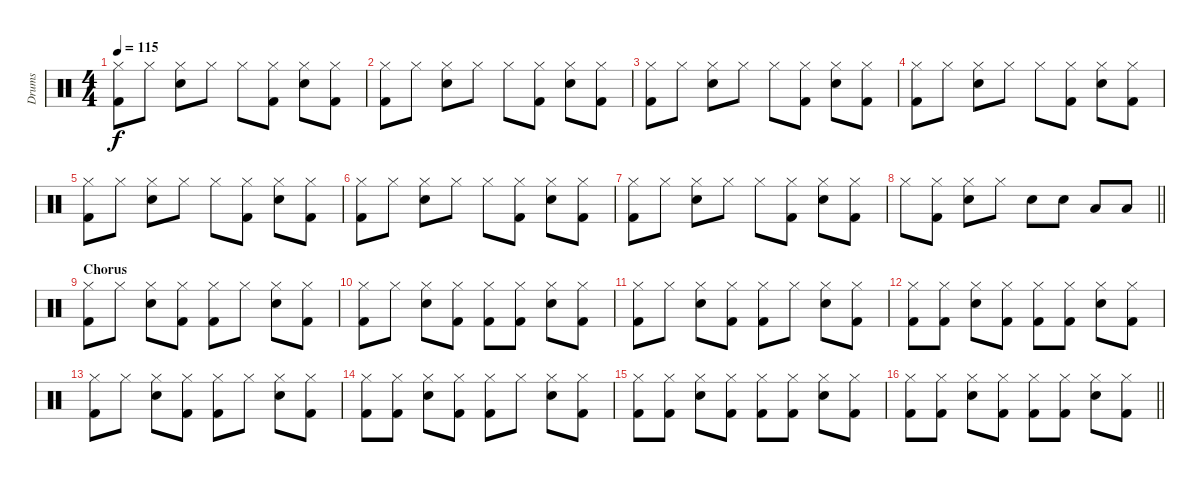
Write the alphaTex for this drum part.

\track ("Drums" "Drums") {instrument percussion}
\staff {score}
\articulation defaults
\ts (4 4)
\tempo 115
\clef neutral
\ks c
("Hi-Hat (closed)" "Kick (hit) 2").8{dy f} "Hi-Hat (closed)".8 ("Hi-Hat (closed)" "Snare (hit) 2").8 "Hi-Hat (closed)".8 "Hi-Hat (closed)".8 ("Hi-Hat (closed)" "Kick (hit) 2").8 ("Hi-Hat (closed)" "Snare (hit) 2").8 ("Hi-Hat (closed)" "Kick (hit) 2").8 |
("Hi-Hat (closed)" "Kick (hit) 2").8 "Hi-Hat (closed)".8 ("Hi-Hat (closed)" "Snare (hit) 2").8 "Hi-Hat (closed)".8 "Hi-Hat (closed)".8 ("Hi-Hat (closed)" "Kick (hit) 2").8 ("Hi-Hat (closed)" "Snare (hit) 2").8 ("Hi-Hat (closed)" "Kick (hit) 2").8 |
("Hi-Hat (closed)" "Kick (hit) 2").8 "Hi-Hat (closed)".8 ("Hi-Hat (closed)" "Snare (hit) 2").8 "Hi-Hat (closed)".8 "Hi-Hat (closed)".8 ("Hi-Hat (closed)" "Kick (hit) 2").8 ("Hi-Hat (closed)" "Snare (hit) 2").8 ("Hi-Hat (closed)" "Kick (hit) 2").8 |
("Hi-Hat (closed)" "Kick (hit) 2").8 "Hi-Hat (closed)".8 ("Hi-Hat (closed)" "Snare (hit) 2").8 "Hi-Hat (closed)".8 "Hi-Hat (closed)".8 ("Hi-Hat (closed)" "Kick (hit) 2").8 ("Hi-Hat (closed)" "Snare (hit) 2").8 ("Hi-Hat (closed)" "Kick (hit) 2").8 |
("Hi-Hat (closed)" "Kick (hit) 2").8 "Hi-Hat (closed)".8 ("Hi-Hat (closed)" "Snare (hit) 2").8 "Hi-Hat (closed)".8 "Hi-Hat (closed)".8 ("Hi-Hat (closed)" "Kick (hit) 2").8 ("Hi-Hat (closed)" "Snare (hit) 2").8 ("Hi-Hat (closed)" "Kick (hit) 2").8 |
("Hi-Hat (closed)" "Kick (hit) 2").8 "Hi-Hat (closed)".8 ("Hi-Hat (closed)" "Snare (hit) 2").8 "Hi-Hat (closed)".8 "Hi-Hat (closed)".8 ("Hi-Hat (closed)" "Kick (hit) 2").8 ("Hi-Hat (closed)" "Snare (hit) 2").8 ("Hi-Hat (closed)" "Kick (hit) 2").8 |
("Hi-Hat (closed)" "Kick (hit) 2").8 "Hi-Hat (closed)".8 ("Hi-Hat (closed)" "Snare (hit) 2").8 "Hi-Hat (closed)".8 "Hi-Hat (closed)".8 ("Hi-Hat (closed)" "Kick (hit) 2").8 ("Hi-Hat (closed)" "Snare (hit) 2").8 ("Hi-Hat (closed)" "Kick (hit) 2").8 |
\barLineRight lightlight "Hi-Hat (closed)".8
("Hi-Hat (closed)" "Kick (hit) 2").8 ("Hi-Hat (closed)" "Snare (hit) 2").8 "Hi-Hat (closed)".8 "Snare (hit) 2".8 "Snare (hit) 2".8 "Low Tom (hit)".8 "Low Tom (hit)".8 |
\section ("" "Chorus")
("Hi-Hat (closed)" "Kick (hit) 2").8 "Hi-Hat (closed)".8 ("Hi-Hat (closed)" "Snare (hit) 2").8 ("Hi-Hat (closed)" "Kick (hit) 2").8 ("Hi-Hat (closed)" "Kick (hit) 2").8 "Hi-Hat (closed)".8 ("Hi-Hat (closed)" "Snare (hit) 2").8 ("Hi-Hat (closed)" "Kick (hit) 2").8 |
("Hi-Hat (closed)" "Kick (hit) 2").8 "Hi-Hat (closed)".8 ("Hi-Hat (closed)" "Snare (hit) 2").8 ("Hi-Hat (closed)" "Kick (hit) 2").8 ("Hi-Hat (closed)" "Kick (hit) 2").8 ("Hi-Hat (closed)" "Kick (hit) 2").8 ("Hi-Hat (closed)" "Snare (hit) 2").8 ("Hi-Hat (closed)" "Kick (hit) 2").8 |
("Hi-Hat (closed)" "Kick (hit) 2").8 "Hi-Hat (closed)".8 ("Hi-Hat (closed)" "Snare (hit) 2").8 ("Hi-Hat (closed)" "Kick (hit) 2").8 ("Hi-Hat (closed)" "Kick (hit) 2").8 "Hi-Hat (closed)".8 ("Hi-Hat (closed)" "Snare (hit) 2").8 ("Hi-Hat (closed)" "Kick (hit) 2").8 |
("Hi-Hat (closed)" "Kick (hit) 2").8 ("Hi-Hat (closed)" "Kick (hit) 2").8 ("Hi-Hat (closed)" "Snare (hit) 2").8 ("Hi-Hat (closed)" "Kick (hit) 2").8 ("Hi-Hat (closed)" "Kick (hit) 2").8 ("Hi-Hat (closed)" "Kick (hit) 2").8 ("Hi-Hat (closed)" "Snare (hit) 2").8 ("Hi-Hat (closed)" "Kick (hit) 2").8 |
("Hi-Hat (closed)" "Kick (hit) 2").8 "Hi-Hat (closed)".8 ("Hi-Hat (closed)" "Snare (hit) 2").8 ("Hi-Hat (closed)" "Kick (hit) 2").8 ("Hi-Hat (closed)" "Kick (hit) 2").8 "Hi-Hat (closed)".8 ("Hi-Hat (closed)" "Snare (hit) 2").8 ("Hi-Hat (closed)" "Kick (hit) 2").8 |
("Hi-Hat (closed)" "Kick (hit) 2").8 ("Hi-Hat (closed)" "Kick (hit) 2").8 ("Hi-Hat (closed)" "Snare (hit) 2").8 ("Hi-Hat (closed)" "Kick (hit) 2").8 ("Hi-Hat (closed)" "Kick (hit) 2").8 "Hi-Hat (closed)".8 ("Hi-Hat (closed)" "Snare (hit) 2").8 ("Hi-Hat (closed)" "Kick (hit) 2").8 |
("Hi-Hat (closed)" "Kick (hit) 2").8 ("Hi-Hat (closed)" "Kick (hit) 2").8 ("Hi-Hat (closed)" "Snare (hit) 2").8 ("Hi-Hat (closed)" "Kick (hit) 2").8 ("Hi-Hat (closed)" "Kick (hit) 2").8 ("Hi-Hat (closed)" "Kick (hit) 2").8 ("Hi-Hat (closed)" "Snare (hit) 2").8 ("Hi-Hat (closed)" "Kick (hit) 2").8 |
\barLineRight lightlight
("Hi-Hat (closed)" "Kick (hit) 2").8 ("Hi-Hat (closed)" "Kick (hit) 2").8 ("Hi-Hat (closed)" "Snare (hit) 2").8 ("Hi-Hat (closed)" "Kick (hit) 2").8 ("Hi-Hat (closed)" "Kick (hit) 2").8 ("Hi-Hat (closed)" "Kick (hit) 2").8 ("Hi-Hat (closed)" "Snare (hit) 2").8 ("Hi-Hat (closed)" "Kick (hit) 2").8
